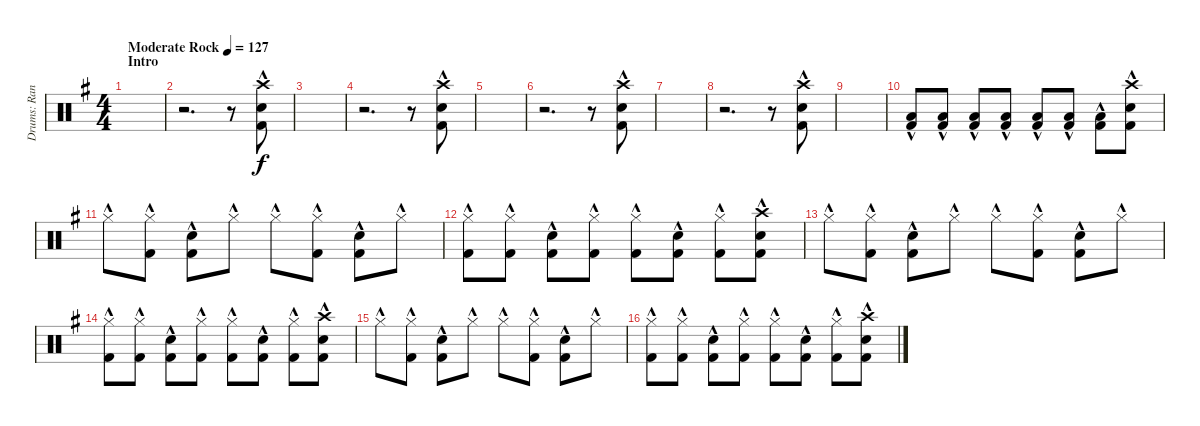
\track ("Drums: Randy" "Drums: Ran") {instrument percussion}
\staff {score}
\articulation defaults
\ts (4 4)
\section ("" "Intro")
\tempo (127 "Moderate Rock")
\clef neutral
\ks g
|
r.2{d} r.8 ("Crash high (hit)"{hac} "Snare (hit) 2"{hac} "Kick (hit) 2"{hac}).8 |
|
r.2{d} r.8 ("Crash high (hit)"{hac} "Snare (hit) 2"{hac} "Kick (hit) 2"{hac}).8 |
|
r.2{d} r.8 ("Crash high (hit)"{hac} "Snare (hit) 2"{hac} "Kick (hit) 2"{hac}).8 |
|
r.2{d} r.8 ("Crash high (hit)"{hac} "Snare (hit) 2"{hac} "Kick (hit) 2"{hac}).8 |
|
("Low Tom (hit)"{hac} "Kick (hit) 2"{hac}).8 ("Low Tom (hit)"{hac} "Kick (hit) 2"{hac}).8 ("Low Tom (hit)"{hac} "Kick (hit) 2"{hac}).8 ("Low Tom (hit)"{hac} "Kick (hit) 2"{hac}).8 ("Low Tom (hit)"{hac} "Kick (hit) 2"{hac}).8 ("Low Tom (hit)"{hac} "Kick (hit) 2"{hac}).8 ("Low Tom (hit)"{hac} "Kick (hit) 2"{hac}).8 ("Crash high (hit)"{hac} "Snare (hit) 2"{hac} "Kick (hit) 2"{hac}).8 |
"Hi-Hat (closed)"{hac}.8 ("Hi-Hat (closed)"{hac} "Kick (hit) 2"{hac}).8 ("Snare (hit) 2"{hac} "Kick (hit) 2"{hac}).8 "Hi-Hat (closed)"{hac}.8 "Hi-Hat (closed)"{hac}.8 ("Hi-Hat (closed)"{hac} "Kick (hit) 2"{hac}).8 ("Snare (hit) 2"{hac} "Kick (hit) 2"{hac}).8 "Hi-Hat (closed)"{hac}.8 |
("Hi-Hat (closed)"{hac} "Kick (hit) 2"{hac}).8 ("Hi-Hat (closed)"{hac} "Kick (hit) 2"{hac}).8 ("Snare (hit) 2"{hac} "Kick (hit) 2"{hac}).8 ("Hi-Hat (closed)"{hac} "Kick (hit) 2"{hac}).8 ("Hi-Hat (closed)"{hac} "Kick (hit) 2"{hac}).8 ("Snare (hit) 2"{hac} "Kick (hit) 2"{hac}).8 ("Hi-Hat (closed)"{hac} "Kick (hit) 2"{hac}).8 ("Crash high (hit)"{hac} "Snare (hit) 2"{hac} "Kick (hit) 2"{hac}).8 |
"Hi-Hat (closed)"{hac}.8 ("Hi-Hat (closed)"{hac} "Kick (hit) 2"{hac}).8 ("Snare (hit) 2"{hac} "Kick (hit) 2"{hac}).8 "Hi-Hat (closed)"{hac}.8 "Hi-Hat (closed)"{hac}.8 ("Hi-Hat (closed)"{hac} "Kick (hit) 2"{hac}).8 ("Snare (hit) 2"{hac} "Kick (hit) 2"{hac}).8 "Hi-Hat (closed)"{hac}.8 |
("Hi-Hat (closed)"{hac} "Kick (hit) 2"{hac}).8 ("Hi-Hat (closed)"{hac} "Kick (hit) 2"{hac}).8 ("Snare (hit) 2"{hac} "Kick (hit) 2"{hac}).8 ("Hi-Hat (closed)"{hac} "Kick (hit) 2"{hac}).8 ("Hi-Hat (closed)"{hac} "Kick (hit) 2"{hac}).8 ("Snare (hit) 2"{hac} "Kick (hit) 2"{hac}).8 ("Hi-Hat (closed)"{hac} "Kick (hit) 2"{hac}).8 ("Crash high (hit)"{hac} "Snare (hit) 2"{hac} "Kick (hit) 2"{hac}).8 |
"Hi-Hat (closed)"{hac}.8 ("Hi-Hat (closed)"{hac} "Kick (hit) 2"{hac}).8 ("Snare (hit) 2"{hac} "Kick (hit) 2"{hac}).8 "Hi-Hat (closed)"{hac}.8 "Hi-Hat (closed)"{hac}.8 ("Hi-Hat (closed)"{hac} "Kick (hit) 2"{hac}).8 ("Snare (hit) 2"{hac} "Kick (hit) 2"{hac}).8 "Hi-Hat (closed)"{hac}.8 |
("Hi-Hat (closed)"{hac} "Kick (hit) 2"{hac}).8 ("Hi-Hat (closed)"{hac} "Kick (hit) 2"{hac}).8 ("Snare (hit) 2"{hac} "Kick (hit) 2"{hac}).8 ("Hi-Hat (closed)"{hac} "Kick (hit) 2"{hac}).8 ("Hi-Hat (closed)"{hac} "Kick (hit) 2"{hac}).8 ("Snare (hit) 2"{hac} "Kick (hit) 2"{hac}).8 ("Hi-Hat (closed)"{hac} "Kick (hit) 2"{hac}).8 ("Crash high (hit)"{hac} "Snare (hit) 2"{hac} "Kick (hit) 2"{hac}).8
